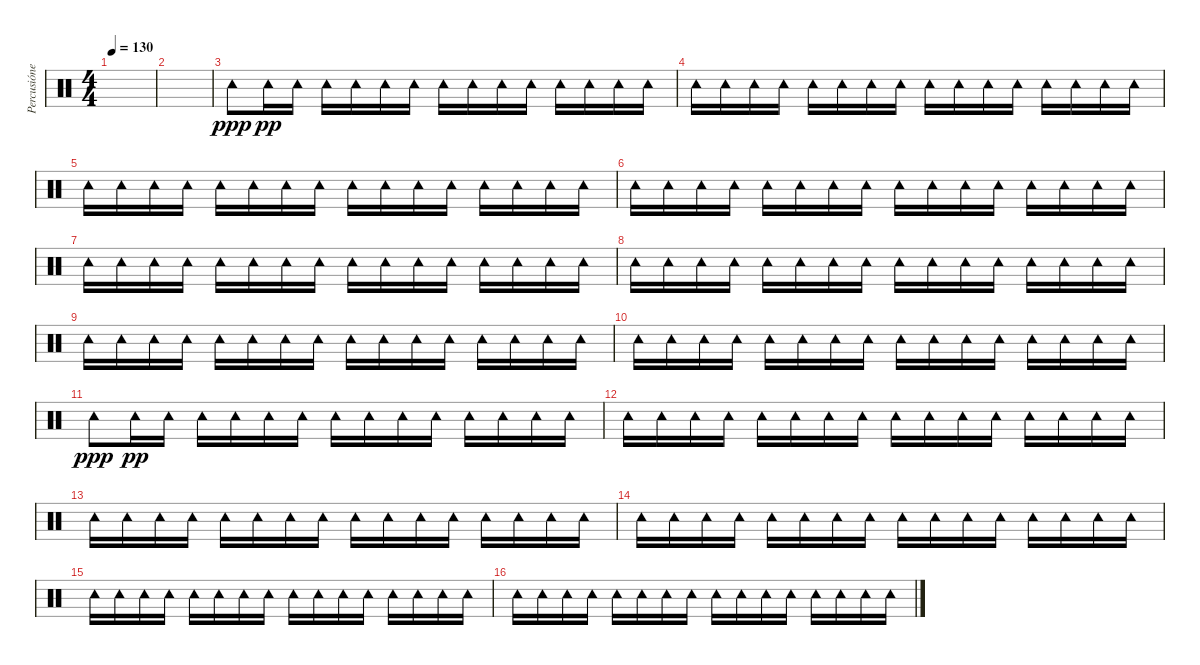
\track ("Percusiónes" "Percusióne") {instrument percussion}
\staff {score}
\articulation defaults
\ts (4 4)
\tempo 130
\clef neutral
\ks c
|
|
"Tambourine (hit)".8{dy ppp} "Tambourine (hit)".16{dy pp} "Tambourine (hit)".16 "Tambourine (hit)".16 "Tambourine (hit)".16 "Tambourine (hit)".16 "Tambourine (hit)".16 "Tambourine (hit)".16 "Tambourine (hit)".16 "Tambourine (hit)".16 "Tambourine (hit)".16 "Tambourine (hit)".16 "Tambourine (hit)".16 "Tambourine (hit)".16 "Tambourine (hit)".16 |
"Tambourine (hit)".16 "Tambourine (hit)".16 "Tambourine (hit)".16 "Tambourine (hit)".16 "Tambourine (hit)".16 "Tambourine (hit)".16 "Tambourine (hit)".16 "Tambourine (hit)".16 "Tambourine (hit)".16 "Tambourine (hit)".16 "Tambourine (hit)".16 "Tambourine (hit)".16 "Tambourine (hit)".16 "Tambourine (hit)".16 "Tambourine (hit)".16 "Tambourine (hit)".16 |
"Tambourine (hit)".16 "Tambourine (hit)".16 "Tambourine (hit)".16 "Tambourine (hit)".16 "Tambourine (hit)".16 "Tambourine (hit)".16 "Tambourine (hit)".16 "Tambourine (hit)".16 "Tambourine (hit)".16 "Tambourine (hit)".16 "Tambourine (hit)".16 "Tambourine (hit)".16 "Tambourine (hit)".16 "Tambourine (hit)".16 "Tambourine (hit)".16 "Tambourine (hit)".16 |
"Tambourine (hit)".16 "Tambourine (hit)".16 "Tambourine (hit)".16 "Tambourine (hit)".16 "Tambourine (hit)".16 "Tambourine (hit)".16 "Tambourine (hit)".16 "Tambourine (hit)".16 "Tambourine (hit)".16 "Tambourine (hit)".16 "Tambourine (hit)".16 "Tambourine (hit)".16 "Tambourine (hit)".16 "Tambourine (hit)".16 "Tambourine (hit)".16 "Tambourine (hit)".16 |
"Tambourine (hit)".16 "Tambourine (hit)".16 "Tambourine (hit)".16 "Tambourine (hit)".16 "Tambourine (hit)".16 "Tambourine (hit)".16 "Tambourine (hit)".16 "Tambourine (hit)".16 "Tambourine (hit)".16 "Tambourine (hit)".16 "Tambourine (hit)".16 "Tambourine (hit)".16 "Tambourine (hit)".16 "Tambourine (hit)".16 "Tambourine (hit)".16 "Tambourine (hit)".16 |
"Tambourine (hit)".16 "Tambourine (hit)".16 "Tambourine (hit)".16 "Tambourine (hit)".16 "Tambourine (hit)".16 "Tambourine (hit)".16 "Tambourine (hit)".16 "Tambourine (hit)".16 "Tambourine (hit)".16 "Tambourine (hit)".16 "Tambourine (hit)".16 "Tambourine (hit)".16 "Tambourine (hit)".16 "Tambourine (hit)".16 "Tambourine (hit)".16 "Tambourine (hit)".16 |
"Tambourine (hit)".16 "Tambourine (hit)".16 "Tambourine (hit)".16 "Tambourine (hit)".16 "Tambourine (hit)".16 "Tambourine (hit)".16 "Tambourine (hit)".16 "Tambourine (hit)".16 "Tambourine (hit)".16 "Tambourine (hit)".16 "Tambourine (hit)".16 "Tambourine (hit)".16 "Tambourine (hit)".16 "Tambourine (hit)".16 "Tambourine (hit)".16 "Tambourine (hit)".16 |
"Tambourine (hit)".16 "Tambourine (hit)".16 "Tambourine (hit)".16 "Tambourine (hit)".16 "Tambourine (hit)".16 "Tambourine (hit)".16 "Tambourine (hit)".16 "Tambourine (hit)".16 "Tambourine (hit)".16 "Tambourine (hit)".16 "Tambourine (hit)".16 "Tambourine (hit)".16 "Tambourine (hit)".16 "Tambourine (hit)".16 "Tambourine (hit)".16 "Tambourine (hit)".16 |
"Tambourine (hit)".8{dy ppp} "Tambourine (hit)".16{dy pp} "Tambourine (hit)".16 "Tambourine (hit)".16 "Tambourine (hit)".16 "Tambourine (hit)".16 "Tambourine (hit)".16 "Tambourine (hit)".16 "Tambourine (hit)".16 "Tambourine (hit)".16 "Tambourine (hit)".16 "Tambourine (hit)".16 "Tambourine (hit)".16 "Tambourine (hit)".16 "Tambourine (hit)".16 |
"Tambourine (hit)".16 "Tambourine (hit)".16 "Tambourine (hit)".16 "Tambourine (hit)".16 "Tambourine (hit)".16 "Tambourine (hit)".16 "Tambourine (hit)".16 "Tambourine (hit)".16 "Tambourine (hit)".16 "Tambourine (hit)".16 "Tambourine (hit)".16 "Tambourine (hit)".16 "Tambourine (hit)".16 "Tambourine (hit)".16 "Tambourine (hit)".16 "Tambourine (hit)".16 |
"Tambourine (hit)".16 "Tambourine (hit)".16 "Tambourine (hit)".16 "Tambourine (hit)".16 "Tambourine (hit)".16 "Tambourine (hit)".16 "Tambourine (hit)".16 "Tambourine (hit)".16 "Tambourine (hit)".16 "Tambourine (hit)".16 "Tambourine (hit)".16 "Tambourine (hit)".16 "Tambourine (hit)".16 "Tambourine (hit)".16 "Tambourine (hit)".16 "Tambourine (hit)".16 |
"Tambourine (hit)".16 "Tambourine (hit)".16 "Tambourine (hit)".16 "Tambourine (hit)".16 "Tambourine (hit)".16 "Tambourine (hit)".16 "Tambourine (hit)".16 "Tambourine (hit)".16 "Tambourine (hit)".16 "Tambourine (hit)".16 "Tambourine (hit)".16 "Tambourine (hit)".16 "Tambourine (hit)".16 "Tambourine (hit)".16 "Tambourine (hit)".16 "Tambourine (hit)".16 |
"Tambourine (hit)".16 "Tambourine (hit)".16 "Tambourine (hit)".16 "Tambourine (hit)".16 "Tambourine (hit)".16 "Tambourine (hit)".16 "Tambourine (hit)".16 "Tambourine (hit)".16 "Tambourine (hit)".16 "Tambourine (hit)".16 "Tambourine (hit)".16 "Tambourine (hit)".16 "Tambourine (hit)".16 "Tambourine (hit)".16 "Tambourine (hit)".16 "Tambourine (hit)".16 |
"Tambourine (hit)".16 "Tambourine (hit)".16 "Tambourine (hit)".16 "Tambourine (hit)".16 "Tambourine (hit)".16 "Tambourine (hit)".16 "Tambourine (hit)".16 "Tambourine (hit)".16 "Tambourine (hit)".16 "Tambourine (hit)".16 "Tambourine (hit)".16 "Tambourine (hit)".16 "Tambourine (hit)".16 "Tambourine (hit)".16 "Tambourine (hit)".16 "Tambourine (hit)".16
